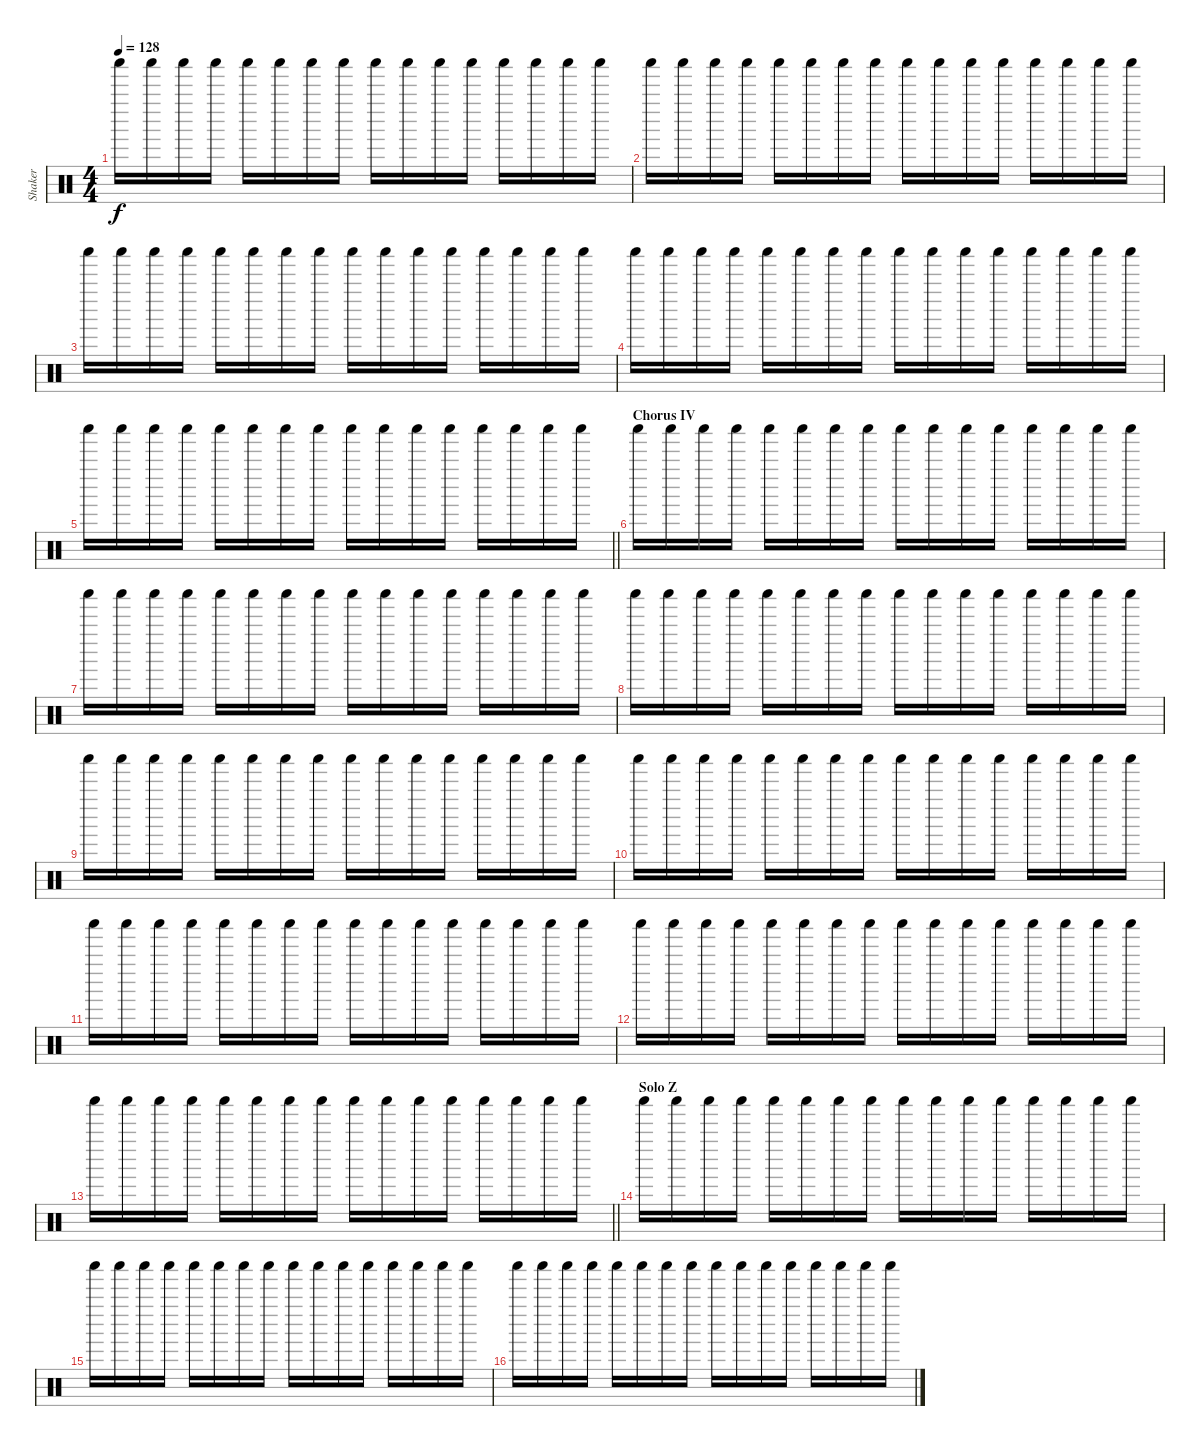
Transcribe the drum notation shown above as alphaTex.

\track ("Shaker" "Shaker") {instrument percussion}
\staff {score}
\articulation defaults
\ts (4 4)
\tempo 128
\clef neutral
\ks c "Shaker (hit)".16{dy f} "Shaker (hit)".16 "Shaker (hit)".16 "Shaker (hit)".16 "Shaker (hit)".16 "Shaker (hit)".16 "Shaker (hit)".16 "Shaker (hit)".16 "Shaker (hit)".16 "Shaker (hit)".16 "Shaker (hit)".16 "Shaker (hit)".16 "Shaker (hit)".16 "Shaker (hit)".16 "Shaker (hit)".16 "Shaker (hit)".16
|
"Shaker (hit)".16 "Shaker (hit)".16 "Shaker (hit)".16 "Shaker (hit)".16 "Shaker (hit)".16 "Shaker (hit)".16 "Shaker (hit)".16 "Shaker (hit)".16 "Shaker (hit)".16 "Shaker (hit)".16 "Shaker (hit)".16 "Shaker (hit)".16 "Shaker (hit)".16 "Shaker (hit)".16 "Shaker (hit)".16 "Shaker (hit)".16 |
"Shaker (hit)".16 "Shaker (hit)".16 "Shaker (hit)".16 "Shaker (hit)".16 "Shaker (hit)".16 "Shaker (hit)".16 "Shaker (hit)".16 "Shaker (hit)".16 "Shaker (hit)".16 "Shaker (hit)".16 "Shaker (hit)".16 "Shaker (hit)".16 "Shaker (hit)".16 "Shaker (hit)".16 "Shaker (hit)".16 "Shaker (hit)".16 |
"Shaker (hit)".16 "Shaker (hit)".16 "Shaker (hit)".16 "Shaker (hit)".16 "Shaker (hit)".16 "Shaker (hit)".16 "Shaker (hit)".16 "Shaker (hit)".16 "Shaker (hit)".16 "Shaker (hit)".16 "Shaker (hit)".16 "Shaker (hit)".16 "Shaker (hit)".16 "Shaker (hit)".16 "Shaker (hit)".16 "Shaker (hit)".16 |
\barLineRight lightlight "Shaker (hit)".16 "Shaker (hit)".16 "Shaker (hit)".16 "Shaker (hit)".16 "Shaker (hit)".16 "Shaker (hit)".16 "Shaker (hit)".16 "Shaker (hit)".16 "Shaker (hit)".16 "Shaker (hit)".16 "Shaker (hit)".16 "Shaker (hit)".16 "Shaker (hit)".16 "Shaker (hit)".16 "Shaker (hit)".16 "Shaker (hit)".16
|
\section ("" "Chorus IV")
"Shaker (hit)".16 "Shaker (hit)".16 "Shaker (hit)".16 "Shaker (hit)".16 "Shaker (hit)".16 "Shaker (hit)".16 "Shaker (hit)".16 "Shaker (hit)".16 "Shaker (hit)".16 "Shaker (hit)".16 "Shaker (hit)".16 "Shaker (hit)".16 "Shaker (hit)".16 "Shaker (hit)".16 "Shaker (hit)".16 "Shaker (hit)".16 |
"Shaker (hit)".16 "Shaker (hit)".16 "Shaker (hit)".16 "Shaker (hit)".16 "Shaker (hit)".16 "Shaker (hit)".16 "Shaker (hit)".16 "Shaker (hit)".16 "Shaker (hit)".16 "Shaker (hit)".16 "Shaker (hit)".16 "Shaker (hit)".16 "Shaker (hit)".16 "Shaker (hit)".16 "Shaker (hit)".16 "Shaker (hit)".16 |
"Shaker (hit)".16 "Shaker (hit)".16 "Shaker (hit)".16 "Shaker (hit)".16 "Shaker (hit)".16 "Shaker (hit)".16 "Shaker (hit)".16 "Shaker (hit)".16 "Shaker (hit)".16 "Shaker (hit)".16 "Shaker (hit)".16 "Shaker (hit)".16 "Shaker (hit)".16 "Shaker (hit)".16 "Shaker (hit)".16 "Shaker (hit)".16 |
"Shaker (hit)".16 "Shaker (hit)".16 "Shaker (hit)".16 "Shaker (hit)".16 "Shaker (hit)".16 "Shaker (hit)".16 "Shaker (hit)".16 "Shaker (hit)".16 "Shaker (hit)".16 "Shaker (hit)".16 "Shaker (hit)".16 "Shaker (hit)".16 "Shaker (hit)".16 "Shaker (hit)".16 "Shaker (hit)".16 "Shaker (hit)".16 |
"Shaker (hit)".16 "Shaker (hit)".16 "Shaker (hit)".16 "Shaker (hit)".16 "Shaker (hit)".16 "Shaker (hit)".16 "Shaker (hit)".16 "Shaker (hit)".16 "Shaker (hit)".16 "Shaker (hit)".16 "Shaker (hit)".16 "Shaker (hit)".16 "Shaker (hit)".16 "Shaker (hit)".16 "Shaker (hit)".16 "Shaker (hit)".16 |
"Shaker (hit)".16 "Shaker (hit)".16 "Shaker (hit)".16 "Shaker (hit)".16 "Shaker (hit)".16 "Shaker (hit)".16 "Shaker (hit)".16 "Shaker (hit)".16 "Shaker (hit)".16 "Shaker (hit)".16 "Shaker (hit)".16 "Shaker (hit)".16 "Shaker (hit)".16 "Shaker (hit)".16 "Shaker (hit)".16 "Shaker (hit)".16 |
"Shaker (hit)".16 "Shaker (hit)".16 "Shaker (hit)".16 "Shaker (hit)".16 "Shaker (hit)".16 "Shaker (hit)".16 "Shaker (hit)".16 "Shaker (hit)".16 "Shaker (hit)".16 "Shaker (hit)".16 "Shaker (hit)".16 "Shaker (hit)".16 "Shaker (hit)".16 "Shaker (hit)".16 "Shaker (hit)".16 "Shaker (hit)".16 |
\barLineRight lightlight "Shaker (hit)".16 "Shaker (hit)".16 "Shaker (hit)".16 "Shaker (hit)".16 "Shaker (hit)".16 "Shaker (hit)".16 "Shaker (hit)".16 "Shaker (hit)".16 "Shaker (hit)".16 "Shaker (hit)".16 "Shaker (hit)".16 "Shaker (hit)".16 "Shaker (hit)".16 "Shaker (hit)".16 "Shaker (hit)".16 "Shaker (hit)".16
|
\section ("" "Solo Z")
"Shaker (hit)".16 "Shaker (hit)".16 "Shaker (hit)".16 "Shaker (hit)".16 "Shaker (hit)".16 "Shaker (hit)".16 "Shaker (hit)".16 "Shaker (hit)".16 "Shaker (hit)".16 "Shaker (hit)".16 "Shaker (hit)".16 "Shaker (hit)".16 "Shaker (hit)".16 "Shaker (hit)".16 "Shaker (hit)".16 "Shaker (hit)".16 |
"Shaker (hit)".16 "Shaker (hit)".16 "Shaker (hit)".16 "Shaker (hit)".16 "Shaker (hit)".16 "Shaker (hit)".16 "Shaker (hit)".16 "Shaker (hit)".16 "Shaker (hit)".16 "Shaker (hit)".16 "Shaker (hit)".16 "Shaker (hit)".16 "Shaker (hit)".16 "Shaker (hit)".16 "Shaker (hit)".16 "Shaker (hit)".16 |
"Shaker (hit)".16 "Shaker (hit)".16 "Shaker (hit)".16 "Shaker (hit)".16 "Shaker (hit)".16 "Shaker (hit)".16 "Shaker (hit)".16 "Shaker (hit)".16 "Shaker (hit)".16 "Shaker (hit)".16 "Shaker (hit)".16 "Shaker (hit)".16 "Shaker (hit)".16 "Shaker (hit)".16 "Shaker (hit)".16 "Shaker (hit)".16
